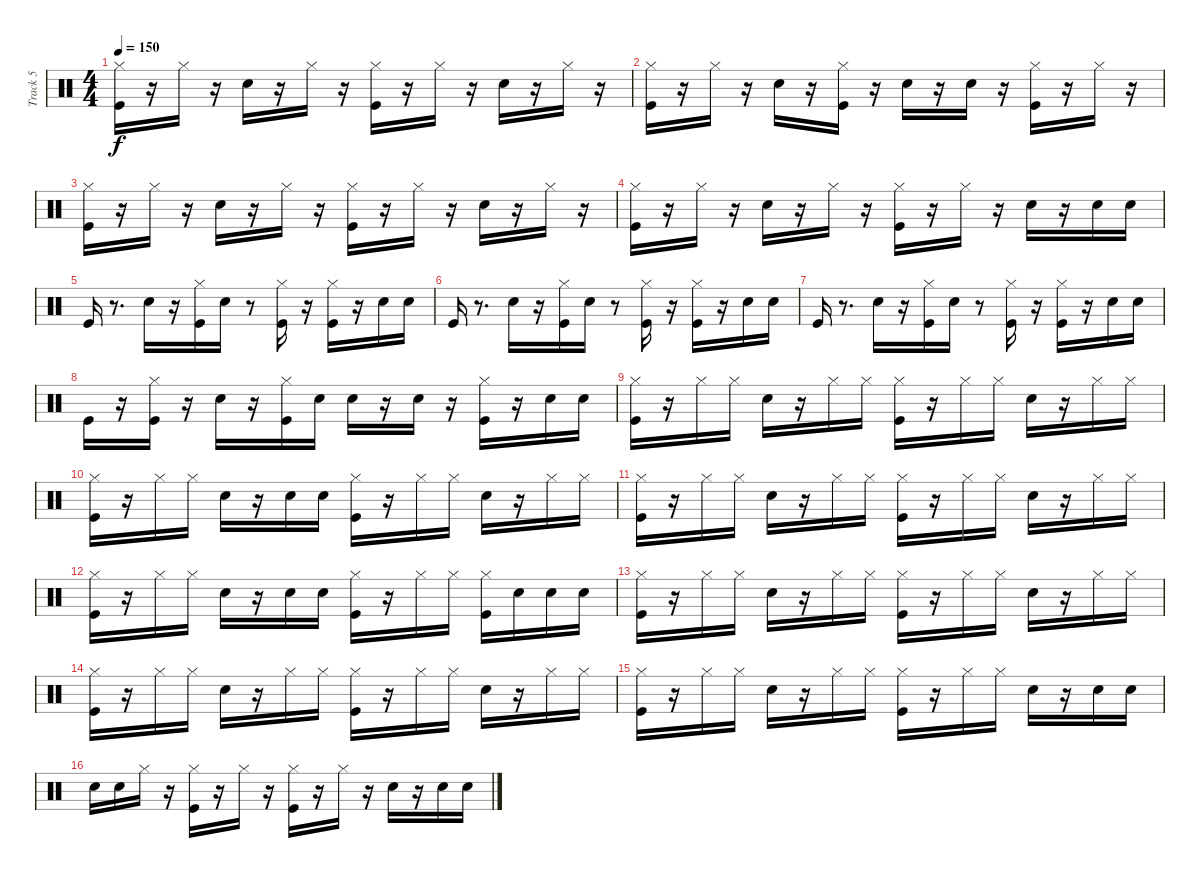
\track ("Track 5" "Track 5") {instrument percussion}
\staff {score}
\articulation defaults
\ts (4 4)
\tempo 150
\clef neutral
\ks c
("Kick (hit)" "Hi-Hat (closed)").16{dy f} r.16 "Hi-Hat (closed)".16 r.16 "Snare (hit) 2".16 r.16 "Hi-Hat (closed)".16 r.16 ("Kick (hit)" "Hi-Hat (closed)").16 r.16 "Hi-Hat (closed)".16 r.16 "Snare (hit) 2".16 r.16 "Hi-Hat (closed)".16 r.16 |
("Kick (hit)" "Hi-Hat (closed)").16 r.16 "Hi-Hat (closed)".16 r.16 "Snare (hit) 2".16 r.16 ("Kick (hit)" "Hi-Hat (closed)").16 r.16 "Snare (hit) 2".16 r.16 "Snare (hit) 2".16 r.16 ("Kick (hit)" "Hi-Hat (closed)").16 r.16 "Hi-Hat (closed)".16 r.16 |
("Kick (hit)" "Hi-Hat (closed)").16 r.16 "Hi-Hat (closed)".16 r.16 "Snare (hit) 2".16 r.16 "Hi-Hat (closed)".16 r.16 ("Kick (hit)" "Hi-Hat (closed)").16 r.16 "Hi-Hat (closed)".16 r.16 "Snare (hit) 2".16 r.16 "Hi-Hat (closed)".16 r.16 |
("Kick (hit)" "Hi-Hat (closed)").16 r.16 "Hi-Hat (closed)".16 r.16 "Snare (hit) 2".16 r.16 "Hi-Hat (closed)".16 r.16 ("Kick (hit)" "Hi-Hat (closed)").16 r.16 "Hi-Hat (closed)".16 r.16 "Snare (hit) 2".16 r.16 "Snare (hit) 2".16 "Snare (hit) 2".16 |
"Kick (hit)".16 r.8{d} "Snare (hit) 2".16 r.16 ("Kick (hit)" "Hi-Hat (closed)").16 "Snare (hit) 2".16 r.8 ("Kick (hit)" "Hi-Hat (closed)").16 r.16 ("Kick (hit)" "Hi-Hat (closed)").16 r.16 "Snare (hit) 2".16 "Snare (hit) 2".16 |
"Kick (hit)".16 r.8{d} "Snare (hit) 2".16 r.16 ("Kick (hit)" "Hi-Hat (closed)").16 "Snare (hit) 2".16 r.8 ("Kick (hit)" "Hi-Hat (closed)").16 r.16 ("Kick (hit)" "Hi-Hat (closed)").16 r.16 "Snare (hit) 2".16 "Snare (hit) 2".16 |
"Kick (hit)".16 r.8{d} "Snare (hit) 2".16 r.16 ("Kick (hit)" "Hi-Hat (closed)").16 "Snare (hit) 2".16 r.8 ("Kick (hit)" "Hi-Hat (closed)").16 r.16 ("Kick (hit)" "Hi-Hat (closed)").16 r.16 "Snare (hit) 2".16 "Snare (hit) 2".16 |
"Kick (hit)".16 r.16 ("Kick (hit)" "Hi-Hat (closed)").16 r.16 "Snare (hit) 2".16 r.16 ("Kick (hit)" "Hi-Hat (closed)").16 "Snare (hit) 2".16 "Snare (hit) 2".16 r.16 "Snare (hit) 2".16 r.16 ("Kick (hit)" "Hi-Hat (closed)").16 r.16 "Snare (hit) 2".16 "Snare (hit) 2".16 |
("Kick (hit)" "Hi-Hat (closed)").16 r.16 "Hi-Hat (closed)".16 "Hi-Hat (closed)".16 "Snare (hit) 2".16 r.16 "Hi-Hat (closed)".16 "Hi-Hat (closed)".16 ("Kick (hit)" "Hi-Hat (closed)").16 r.16 "Hi-Hat (closed)".16 "Hi-Hat (closed)".16 "Snare (hit) 2".16 r.16 "Hi-Hat (closed)".16 "Hi-Hat (closed)".16 |
("Kick (hit)" "Hi-Hat (closed)").16 r.16 "Hi-Hat (closed)".16 "Hi-Hat (closed)".16 "Snare (hit) 2".16 r.16 "Snare (hit) 2".16 "Snare (hit) 2".16 ("Kick (hit)" "Hi-Hat (closed)").16 r.16 "Hi-Hat (closed)".16 "Hi-Hat (closed)".16 "Snare (hit) 2".16 r.16 "Hi-Hat (closed)".16 "Hi-Hat (closed)".16 |
("Kick (hit)" "Hi-Hat (closed)").16 r.16 "Hi-Hat (closed)".16 "Hi-Hat (closed)".16 "Snare (hit) 2".16 r.16 "Hi-Hat (closed)".16 "Hi-Hat (closed)".16 ("Kick (hit)" "Hi-Hat (closed)").16 r.16 "Hi-Hat (closed)".16 "Hi-Hat (closed)".16 "Snare (hit) 2".16 r.16 "Hi-Hat (closed)".16 "Hi-Hat (closed)".16 |
("Kick (hit)" "Hi-Hat (closed)").16 r.16 "Hi-Hat (closed)".16 "Hi-Hat (closed)".16 "Snare (hit) 2".16 r.16 "Snare (hit) 2".16 "Snare (hit) 2".16 ("Kick (hit)" "Hi-Hat (closed)").16 r.16 "Hi-Hat (closed)".16 "Hi-Hat (closed)".16 ("Kick (hit)" "Hi-Hat (closed)").16 "Snare (hit) 2".16 "Snare (hit) 2".16 "Snare (hit) 2".16 |
("Kick (hit)" "Hi-Hat (closed)").16 r.16 "Hi-Hat (closed)".16 "Hi-Hat (closed)".16 "Snare (hit) 2".16 r.16 "Hi-Hat (closed)".16 "Hi-Hat (closed)".16 ("Kick (hit)" "Hi-Hat (closed)").16 r.16 "Hi-Hat (closed)".16 "Hi-Hat (closed)".16 "Snare (hit) 2".16 r.16 "Hi-Hat (closed)".16 "Hi-Hat (closed)".16 |
("Kick (hit)" "Hi-Hat (closed)").16 r.16 "Hi-Hat (closed)".16 "Hi-Hat (closed)".16 "Snare (hit) 2".16 r.16 "Hi-Hat (closed)".16 "Hi-Hat (closed)".16 ("Kick (hit)" "Hi-Hat (closed)").16 r.16 "Hi-Hat (closed)".16 "Hi-Hat (closed)".16 "Snare (hit) 2".16 r.16 "Hi-Hat (closed)".16 "Hi-Hat (closed)".16 |
("Kick (hit)" "Hi-Hat (closed)").16 r.16 "Hi-Hat (closed)".16 "Hi-Hat (closed)".16 "Snare (hit) 2".16 r.16 "Hi-Hat (closed)".16 "Hi-Hat (closed)".16 ("Kick (hit)" "Hi-Hat (closed)").16 r.16 "Hi-Hat (closed)".16 "Hi-Hat (closed)".16 "Snare (hit) 2".16 r.16 "Snare (hit) 2".16 "Snare (hit) 2".16 |
"Snare (hit) 2".16 "Snare (hit) 2".16 "Hi-Hat (closed)".16 r.16 ("Kick (hit)" "Hi-Hat (closed)").16 r.16 "Hi-Hat (closed)".16 r.16 ("Kick (hit)" "Hi-Hat (closed)").16 r.16 "Hi-Hat (closed)".16 r.16 "Snare (hit) 2".16 r.16 "Snare (hit) 2".16 "Snare (hit) 2".16
